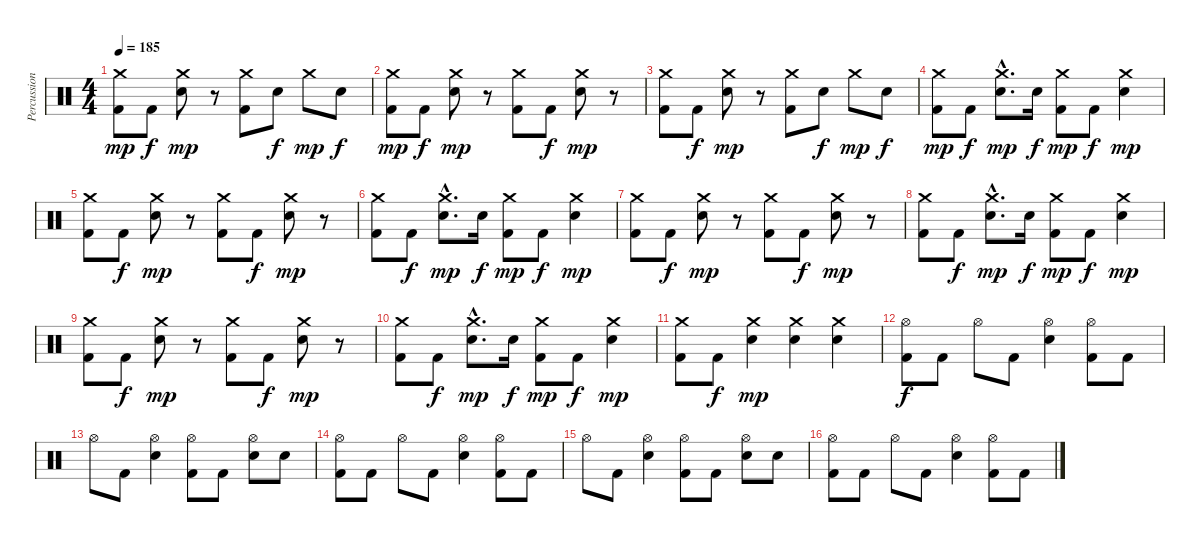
\track ("Percussions" "Percussion") {instrument percussion}
\staff {score}
\articulation defaults
\ts (4 4)
\tempo 185
\clef neutral
\ks c
("Kick (hit) 2" "Crash medium (hit)").8{dy mp} "Kick (hit) 2".8{dy f} ("Electric Snare (hit)" "Crash medium (hit)").8{dy mp} r.8 ("Kick (hit) 2" "Crash medium (hit)").8 "Electric Snare (hit)".8{dy f} "Crash medium (hit)".8{dy mp} "Electric Snare (hit)".8{dy f} |
("Kick (hit) 2" "Crash medium (hit)").8{dy mp} "Kick (hit) 2".8{dy f} ("Electric Snare (hit)" "Crash medium (hit)").8{dy mp} r.8 ("Kick (hit) 2" "Crash medium (hit)").8 "Kick (hit) 2".8{dy f} ("Electric Snare (hit)" "Crash medium (hit)").8{dy mp} r.8 |
("Kick (hit) 2" "Crash medium (hit)").8 "Kick (hit) 2".8{dy f} ("Electric Snare (hit)" "Crash medium (hit)").8{dy mp} r.8 ("Kick (hit) 2" "Crash medium (hit)").8 "Electric Snare (hit)".8{dy f} "Crash medium (hit)".8{dy mp} "Electric Snare (hit)".8{dy f} |
("Kick (hit) 2" "Crash medium (hit)").8{dy mp} "Kick (hit) 2".8{dy f} ("Electric Snare (hit)"{hac} "Crash medium (hit)"{hac}).8{d dy mp} "Electric Snare (hit)".16{dy f} ("Kick (hit) 2" "Crash medium (hit)").8{dy mp} "Kick (hit) 2".8{dy f} ("Electric Snare (hit)" "Crash medium (hit)").4{dy mp} |
("Kick (hit) 2" "Crash medium (hit)").8 "Kick (hit) 2".8{dy f} ("Electric Snare (hit)" "Crash medium (hit)").8{dy mp} r.8 ("Kick (hit) 2" "Crash medium (hit)").8 "Kick (hit) 2".8{dy f} ("Electric Snare (hit)" "Crash medium (hit)").8{dy mp} r.8 |
("Kick (hit) 2" "Crash medium (hit)").8 "Kick (hit) 2".8{dy f} ("Electric Snare (hit)"{hac} "Crash medium (hit)"{hac}).8{d dy mp} "Electric Snare (hit)".16{dy f} ("Kick (hit) 2" "Crash medium (hit)").8{dy mp} "Kick (hit) 2".8{dy f} ("Electric Snare (hit)" "Crash medium (hit)").4{dy mp} |
("Kick (hit) 2" "Crash medium (hit)").8 "Kick (hit) 2".8{dy f} ("Electric Snare (hit)" "Crash medium (hit)").8{dy mp} r.8 ("Kick (hit) 2" "Crash medium (hit)").8 "Kick (hit) 2".8{dy f} ("Electric Snare (hit)" "Crash medium (hit)").8{dy mp} r.8 |
("Kick (hit) 2" "Crash medium (hit)").8 "Kick (hit) 2".8{dy f} ("Electric Snare (hit)"{hac} "Crash medium (hit)"{hac}).8{d dy mp} "Electric Snare (hit)".16{dy f} ("Kick (hit) 2" "Crash medium (hit)").8{dy mp} "Kick (hit) 2".8{dy f} ("Electric Snare (hit)" "Crash medium (hit)").4{dy mp} |
("Kick (hit) 2" "Crash medium (hit)").8 "Kick (hit) 2".8{dy f} ("Electric Snare (hit)" "Crash medium (hit)").8{dy mp} r.8 ("Kick (hit) 2" "Crash medium (hit)").8 "Kick (hit) 2".8{dy f} ("Electric Snare (hit)" "Crash medium (hit)").8{dy mp} r.8 |
("Kick (hit) 2" "Crash medium (hit)").8 "Kick (hit) 2".8{dy f} ("Electric Snare (hit)"{hac} "Crash medium (hit)"{hac}).8{d dy mp} "Electric Snare (hit)".16{dy f} ("Kick (hit) 2" "Crash medium (hit)").8{dy mp} "Kick (hit) 2".8{dy f} ("Electric Snare (hit)" "Crash medium (hit)").4{dy mp} |
("Kick (hit) 2" "Crash medium (hit)").8 "Kick (hit) 2".8{dy f} ("Electric Snare (hit)" "Crash medium (hit)").4{dy mp} ("Electric Snare (hit)" "Crash medium (hit)").4 ("Electric Snare (hit)" "Crash medium (hit)").4 |
("Kick (hit) 2" "Hi-Hat (open)").8{dy f} "Kick (hit) 2".8 "Hi-Hat (open)".8 "Kick (hit) 2".8 ("Electric Snare (hit)" "Hi-Hat (open)").4 ("Kick (hit) 2" "Hi-Hat (open)").8 "Kick (hit) 2".8 |
"Hi-Hat (open)".8 "Kick (hit) 2".8 ("Electric Snare (hit)" "Hi-Hat (open)").4 ("Kick (hit) 2" "Hi-Hat (open)").8 "Kick (hit) 2".8 ("Electric Snare (hit)" "Hi-Hat (open)").8 "Electric Snare (hit)".8 |
("Kick (hit) 2" "Hi-Hat (open)").8 "Kick (hit) 2".8 "Hi-Hat (open)".8 "Kick (hit) 2".8 ("Electric Snare (hit)" "Hi-Hat (open)").4 ("Kick (hit) 2" "Hi-Hat (open)").8 "Kick (hit) 2".8 |
"Hi-Hat (open)".8 "Kick (hit) 2".8 ("Electric Snare (hit)" "Hi-Hat (open)").4 ("Kick (hit) 2" "Hi-Hat (open)").8 "Kick (hit) 2".8 ("Electric Snare (hit)" "Hi-Hat (open)").8 "Electric Snare (hit)".8 |
("Kick (hit) 2" "Hi-Hat (open)").8 "Kick (hit) 2".8 "Hi-Hat (open)".8 "Kick (hit) 2".8 ("Electric Snare (hit)" "Hi-Hat (open)").4 ("Kick (hit) 2" "Hi-Hat (open)").8 "Kick (hit) 2".8
